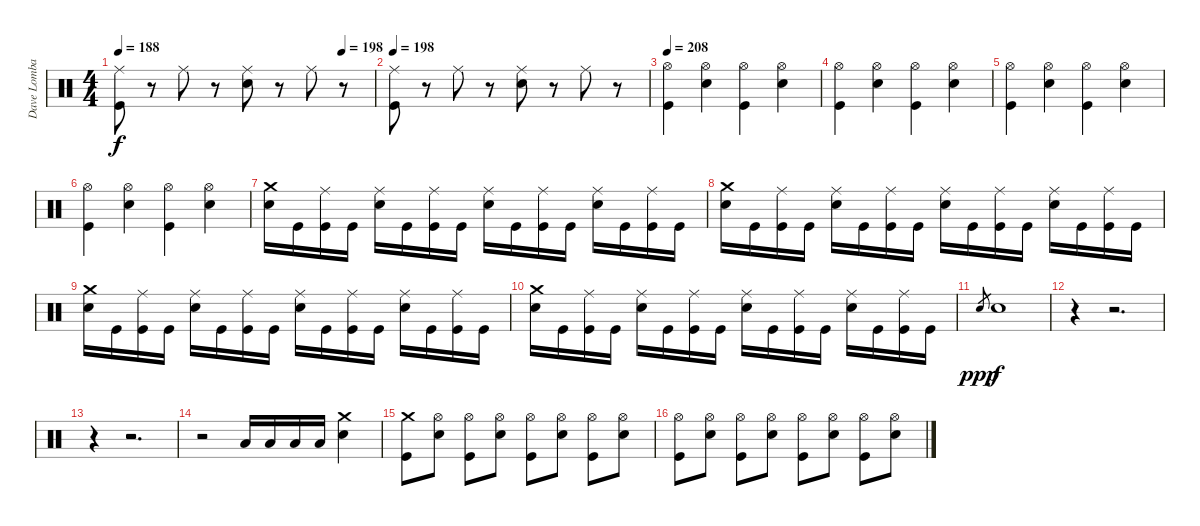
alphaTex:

\track ("Dave Lombardo (Drum)" "Dave Lomba") {instrument percussion}
\staff {score}
\articulation defaults
\ts (4 4)
\tempo 188
\tempo (198 0.875)
\clef neutral
\ks c
("Kick (hit)" "Ride (middle)").8{dy f} r.8 "Ride (middle)".8 r.8 ("Snare (hit) 2" "Ride (middle)").8 r.8 "Ride (middle)".8 r.8 |
\tempo 198
("Kick (hit)" "Ride (middle)").8 r.8 "Ride (middle)".8 r.8 ("Snare (hit) 2" "Ride (middle)").8 r.8 "Ride (middle)".8 r.8 |
\tempo 208
("Hi-Hat (open)" "Kick (hit)").4 ("Hi-Hat (open)" "Snare (hit) 2").4 ("Hi-Hat (open)" "Kick (hit)").4 ("Hi-Hat (open)" "Snare (hit) 2").4 |
("Hi-Hat (open)" "Kick (hit)").4 ("Hi-Hat (open)" "Snare (hit) 2").4 ("Hi-Hat (open)" "Kick (hit)").4 ("Hi-Hat (open)" "Snare (hit) 2").4 |
("Hi-Hat (open)" "Kick (hit)").4 ("Hi-Hat (open)" "Snare (hit) 2").4 ("Hi-Hat (open)" "Kick (hit)").4 ("Hi-Hat (open)" "Snare (hit) 2").4 |
("Hi-Hat (open)" "Kick (hit)").4 ("Hi-Hat (open)" "Snare (hit) 2").4 ("Hi-Hat (open)" "Kick (hit)").4 ("Hi-Hat (open)" "Snare (hit) 2").4 |
("Crash medium (hit)" "Snare (hit) 2").16 "Kick (hit)".16 ("Ride (middle)" "Kick (hit)").16 "Kick (hit)".16 ("Ride (middle)" "Snare (hit) 2").16 "Kick (hit)".16 ("Ride (middle)" "Kick (hit)").16 "Kick (hit)".16 ("Ride (middle)" "Snare (hit) 2").16 "Kick (hit)".16 ("Ride (middle)" "Kick (hit)").16 "Kick (hit)".16 ("Ride (middle)" "Snare (hit) 2").16 "Kick (hit)".16 ("Ride (middle)" "Kick (hit)").16 "Kick (hit)".16 |
("Crash medium (hit)" "Snare (hit) 2").16 "Kick (hit)".16 ("Ride (middle)" "Kick (hit)").16 "Kick (hit)".16 ("Ride (middle)" "Snare (hit) 2").16 "Kick (hit)".16 ("Ride (middle)" "Kick (hit)").16 "Kick (hit)".16 ("Ride (middle)" "Snare (hit) 2").16 "Kick (hit)".16 ("Ride (middle)" "Kick (hit)").16 "Kick (hit)".16 ("Ride (middle)" "Snare (hit) 2").16 "Kick (hit)".16 ("Ride (middle)" "Kick (hit)").16 "Kick (hit)".16 |
("Crash medium (hit)" "Snare (hit) 2").16 "Kick (hit)".16 ("Ride (middle)" "Kick (hit)").16 "Kick (hit)".16 ("Ride (middle)" "Snare (hit) 2").16 "Kick (hit)".16 ("Ride (middle)" "Kick (hit)").16 "Kick (hit)".16 ("Ride (middle)" "Snare (hit) 2").16 "Kick (hit)".16 ("Ride (middle)" "Kick (hit)").16 "Kick (hit)".16 ("Ride (middle)" "Snare (hit) 2").16 "Kick (hit)".16 ("Ride (middle)" "Kick (hit)").16 "Kick (hit)".16 |
("Crash medium (hit)" "Snare (hit) 2").16 "Kick (hit)".16 ("Ride (middle)" "Kick (hit)").16 "Kick (hit)".16 ("Ride (middle)" "Snare (hit) 2").16 "Kick (hit)".16 ("Ride (middle)" "Kick (hit)").16 "Kick (hit)".16 ("Ride (middle)" "Snare (hit) 2").16 "Kick (hit)".16 ("Ride (middle)" "Kick (hit)").16 "Kick (hit)".16 ("Ride (middle)" "Snare (hit) 2").16 "Kick (hit)".16 ("Ride (middle)" "Kick (hit)").16 "Kick (hit)".16 |
"Snare (hit)".8{gr dy ppp} "Snare (hit) 2".1{dy f} |
r.4 r.2{d} |
r.4 r.2{d} |
r.2 "Low Tom (hit)".16 "Low Tom (hit)".16 "Low Tom (hit)".16 "Low Tom (hit)".16 ("Crash medium (hit)" "Snare (hit) 2").4 |
("Crash medium (hit)" "Kick (hit)").8 ("Snare (hit) 2" "Hi-Hat (open)").8 ("Kick (hit)" "Hi-Hat (open)").8 ("Snare (hit) 2" "Hi-Hat (open)").8 ("Kick (hit)" "Hi-Hat (open)").8 ("Snare (hit) 2" "Hi-Hat (open)").8 ("Kick (hit)" "Hi-Hat (open)").8 ("Snare (hit) 2" "Hi-Hat (open)").8 |
("Hi-Hat (open)" "Kick (hit)").8 ("Snare (hit) 2" "Hi-Hat (open)").8 ("Kick (hit)" "Hi-Hat (open)").8 ("Snare (hit) 2" "Hi-Hat (open)").8 ("Kick (hit)" "Hi-Hat (open)").8 ("Snare (hit) 2" "Hi-Hat (open)").8 ("Kick (hit)" "Hi-Hat (open)").8 ("Snare (hit) 2" "Hi-Hat (open)").8
